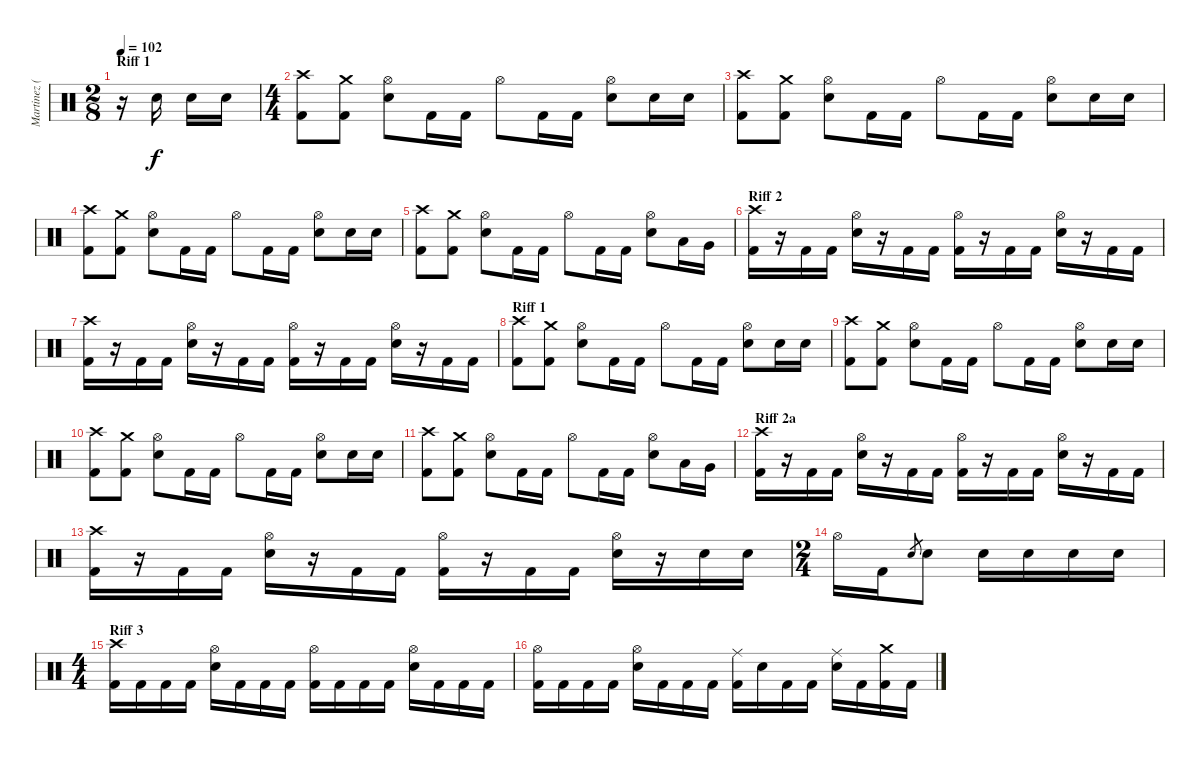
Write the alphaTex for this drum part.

\track ("Martinez (bateria)" "Martinez (") {instrument percussion}
\staff {score}
\articulation defaults
\ts (2 8)
\section ("" "Riff 1")
\tempo 102
\clef neutral
\ks c
r.16{dy f} "Electric Snare (hit)".16 "Electric Snare (hit)".16 "Electric Snare (hit)".16 |
\ts (4 4)
("Crash high (hit)" "Kick (hit) 2").8 ("Crash medium (hit)" "Kick (hit) 2").8 ("Hi-Hat (open)" "Electric Snare (hit)").8 "Kick (hit) 2".16 "Kick (hit) 2".16 "Hi-Hat (open)".8 "Kick (hit) 2".16 "Kick (hit) 2".16 ("Hi-Hat (open)" "Electric Snare (hit)").8 "Electric Snare (hit)".16 "Electric Snare (hit)".16 |
("Crash high (hit)" "Kick (hit) 2").8 ("Crash medium (hit)" "Kick (hit) 2").8 ("Hi-Hat (open)" "Electric Snare (hit)").8 "Kick (hit) 2".16 "Kick (hit) 2".16 "Hi-Hat (open)".8 "Kick (hit) 2".16 "Kick (hit) 2".16 ("Hi-Hat (open)" "Electric Snare (hit)").8 "Electric Snare (hit)".16 "Electric Snare (hit)".16 |
("Crash high (hit)" "Kick (hit) 2").8 ("Crash medium (hit)" "Kick (hit) 2").8 ("Hi-Hat (open)" "Electric Snare (hit)").8 "Kick (hit) 2".16 "Kick (hit) 2".16 "Hi-Hat (open)".8 "Kick (hit) 2".16 "Kick (hit) 2".16 ("Hi-Hat (open)" "Electric Snare (hit)").8 "Electric Snare (hit)".16 "Electric Snare (hit)".16 |
("Crash high (hit)" "Kick (hit) 2").8 ("Crash medium (hit)" "Kick (hit) 2").8 ("Hi-Hat (open)" "Electric Snare (hit)").8 "Kick (hit) 2".16 "Kick (hit) 2".16 "Hi-Hat (open)".8 "Kick (hit) 2".16 "Kick (hit) 2".16 ("Hi-Hat (open)" "Electric Snare (hit)").8 "Low Tom (hit)".16 "Very Low Tom (hit)".16 |
\section ("" "Riff 2")
("Crash high (hit)" "Kick (hit) 2").16 r.16 "Kick (hit) 2".16 "Kick (hit) 2".16 ("Hi-Hat (open)" "Electric Snare (hit)").16 r.16 "Kick (hit) 2".16 "Kick (hit) 2".16 ("Hi-Hat (open)" "Kick (hit) 2").16 r.16 "Kick (hit) 2".16 "Kick (hit) 2".16 ("Hi-Hat (open)" "Electric Snare (hit)").16 r.16 "Kick (hit) 2".16 "Kick (hit) 2".16 |
("Crash high (hit)" "Kick (hit) 2").16 r.16 "Kick (hit) 2".16 "Kick (hit) 2".16 ("Hi-Hat (open)" "Electric Snare (hit)").16 r.16 "Kick (hit) 2".16 "Kick (hit) 2".16 ("Hi-Hat (open)" "Kick (hit) 2").16 r.16 "Kick (hit) 2".16 "Kick (hit) 2".16 ("Hi-Hat (open)" "Electric Snare (hit)").16 r.16 "Kick (hit) 2".16 "Kick (hit) 2".16 |
\section ("" "Riff 1")
("Crash high (hit)" "Kick (hit) 2").8 ("Crash medium (hit)" "Kick (hit) 2").8 ("Hi-Hat (open)" "Electric Snare (hit)").8 "Kick (hit) 2".16 "Kick (hit) 2".16 "Hi-Hat (open)".8 "Kick (hit) 2".16 "Kick (hit) 2".16 ("Hi-Hat (open)" "Electric Snare (hit)").8 "Electric Snare (hit)".16 "Electric Snare (hit)".16 |
("Crash high (hit)" "Kick (hit) 2").8 ("Crash medium (hit)" "Kick (hit) 2").8 ("Hi-Hat (open)" "Electric Snare (hit)").8 "Kick (hit) 2".16 "Kick (hit) 2".16 "Hi-Hat (open)".8 "Kick (hit) 2".16 "Kick (hit) 2".16 ("Hi-Hat (open)" "Electric Snare (hit)").8 "Electric Snare (hit)".16 "Electric Snare (hit)".16 |
("Crash high (hit)" "Kick (hit) 2").8 ("Crash medium (hit)" "Kick (hit) 2").8 ("Hi-Hat (open)" "Electric Snare (hit)").8 "Kick (hit) 2".16 "Kick (hit) 2".16 "Hi-Hat (open)".8 "Kick (hit) 2".16 "Kick (hit) 2".16 ("Hi-Hat (open)" "Electric Snare (hit)").8 "Electric Snare (hit)".16 "Electric Snare (hit)".16 |
("Crash high (hit)" "Kick (hit) 2").8 ("Crash medium (hit)" "Kick (hit) 2").8 ("Hi-Hat (open)" "Electric Snare (hit)").8 "Kick (hit) 2".16 "Kick (hit) 2".16 "Hi-Hat (open)".8 "Kick (hit) 2".16 "Kick (hit) 2".16 ("Hi-Hat (open)" "Electric Snare (hit)").8 "Low Tom (hit)".16 "Very Low Tom (hit)".16 |
\section ("" "Riff 2a")
("Crash high (hit)" "Kick (hit) 2").16 r.16 "Kick (hit) 2".16 "Kick (hit) 2".16 ("Hi-Hat (open)" "Electric Snare (hit)").16 r.16 "Kick (hit) 2".16 "Kick (hit) 2".16 ("Hi-Hat (open)" "Kick (hit) 2").16 r.16 "Kick (hit) 2".16 "Kick (hit) 2".16 ("Hi-Hat (open)" "Electric Snare (hit)").16 r.16 "Kick (hit) 2".16 "Kick (hit) 2".16 |
("Crash high (hit)" "Kick (hit) 2").16 r.16 "Kick (hit) 2".16 "Kick (hit) 2".16 ("Hi-Hat (open)" "Electric Snare (hit)").16 r.16 "Kick (hit) 2".16 "Kick (hit) 2".16 ("Hi-Hat (open)" "Kick (hit) 2").16 r.16 "Kick (hit) 2".16 "Kick (hit) 2".16 ("Hi-Hat (open)" "Electric Snare (hit)").16 r.16 "Electric Snare (hit)".16 "Electric Snare (hit)".16 |
\ts (2 4)
"Hi-Hat (open)".16 "Kick (hit) 2".16 "Electric Snare (hit)".8{gr} "Electric Snare (hit)".8 "Snare (hit) 2".16 "Snare (hit) 2".16 "Snare (hit) 2".16 "Snare (hit) 2".16 |
\ts (4 4)
\section ("" "Riff 3")
("Crash high (hit)" "Kick (hit) 2").16 "Kick (hit) 2".16 "Kick (hit) 2".16 "Kick (hit) 2".16 ("Hi-Hat (open)" "Electric Snare (hit)").16 "Kick (hit) 2".16 "Kick (hit) 2".16 "Kick (hit) 2".16 ("Hi-Hat (open)" "Kick (hit) 2").16 "Kick (hit) 2".16 "Kick (hit) 2".16 "Kick (hit) 2".16 ("Hi-Hat (open)" "Electric Snare (hit)").16 "Kick (hit) 2".16 "Kick (hit) 2".16 "Kick (hit) 2".16 |
("Hi-Hat (open)" "Kick (hit) 2").16 "Kick (hit) 2".16 "Kick (hit) 2".16 "Kick (hit) 2".16 ("Hi-Hat (open)" "Electric Snare (hit)").16 "Kick (hit) 2".16 "Kick (hit) 2".16 "Kick (hit) 2".16 ("Ride (middle)" "Kick (hit) 2").16 "Electric Snare (hit)".16 "Kick (hit) 2".16 "Kick (hit) 2".16 ("Ride (middle)" "Electric Snare (hit)").16 "Kick (hit) 2".16 ("Crash medium (hit)" "Kick (hit) 2").16 "Kick (hit) 2".16
